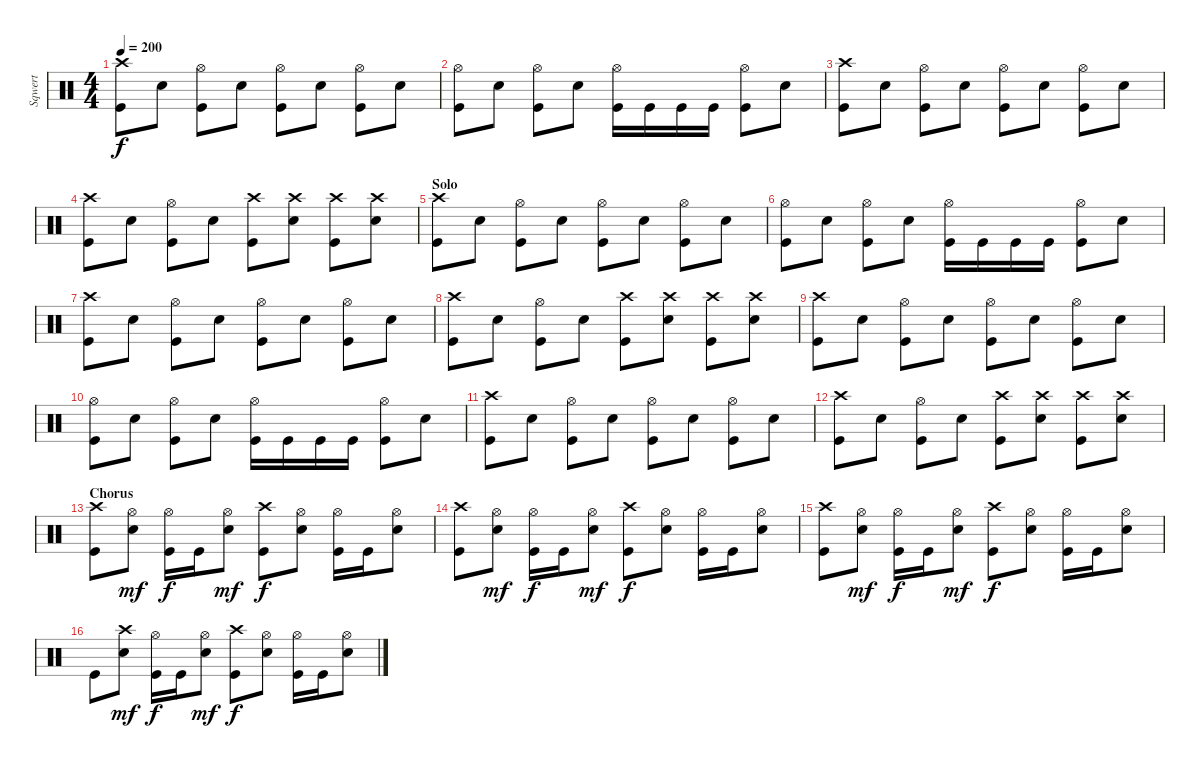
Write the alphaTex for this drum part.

\track ("Sqwert" "Sqwert") {instrument percussion}
\staff {score}
\articulation defaults
\ts (4 4)
\tempo 200
\clef neutral
\ks c
("Crash high (hit)" "Kick (hit)").8{dy f} "Snare (hit) 2".8 ("Hi-Hat (open)" "Kick (hit)").8 "Snare (hit) 2".8 ("Hi-Hat (open)" "Kick (hit)").8 "Snare (hit) 2".8 ("Hi-Hat (open)" "Kick (hit)").8 "Snare (hit) 2".8 |
("Hi-Hat (open)" "Kick (hit)").8 "Snare (hit) 2".8 ("Hi-Hat (open)" "Kick (hit)").8 "Snare (hit) 2".8 ("Hi-Hat (open)" "Kick (hit)").16 "Kick (hit)".16 "Kick (hit)".16 "Kick (hit)".16 ("Hi-Hat (open)" "Kick (hit)").8 "Snare (hit) 2".8 |
("Crash high (hit)" "Kick (hit)").8 "Snare (hit) 2".8 ("Hi-Hat (open)" "Kick (hit)").8 "Snare (hit) 2".8 ("Hi-Hat (open)" "Kick (hit)").8 "Snare (hit) 2".8 ("Hi-Hat (open)" "Kick (hit)").8 "Snare (hit) 2".8 |
("Crash high (hit)" "Kick (hit)").8 "Snare (hit) 2".8 ("Hi-Hat (open)" "Kick (hit)").8 "Snare (hit) 2".8 ("Crash high (hit)" "Kick (hit)").8 ("Crash high (hit)" "Snare (hit) 2").8 ("Crash high (hit)" "Kick (hit)").8 ("Crash high (hit)" "Snare (hit) 2").8 |
\section ("" "Solo")
("Crash high (hit)" "Kick (hit)").8 "Snare (hit) 2".8 ("Hi-Hat (open)" "Kick (hit)").8 "Snare (hit) 2".8 ("Hi-Hat (open)" "Kick (hit)").8 "Snare (hit) 2".8 ("Hi-Hat (open)" "Kick (hit)").8 "Snare (hit) 2".8 |
("Hi-Hat (open)" "Kick (hit)").8 "Snare (hit) 2".8 ("Hi-Hat (open)" "Kick (hit)").8 "Snare (hit) 2".8 ("Hi-Hat (open)" "Kick (hit)").16 "Kick (hit)".16 "Kick (hit)".16 "Kick (hit)".16 ("Hi-Hat (open)" "Kick (hit)").8 "Snare (hit) 2".8 |
("Crash high (hit)" "Kick (hit)").8 "Snare (hit) 2".8 ("Hi-Hat (open)" "Kick (hit)").8 "Snare (hit) 2".8 ("Hi-Hat (open)" "Kick (hit)").8 "Snare (hit) 2".8 ("Hi-Hat (open)" "Kick (hit)").8 "Snare (hit) 2".8 |
("Crash high (hit)" "Kick (hit)").8 "Snare (hit) 2".8 ("Hi-Hat (open)" "Kick (hit)").8 "Snare (hit) 2".8 ("Crash high (hit)" "Kick (hit)").8 ("Crash high (hit)" "Snare (hit) 2").8 ("Crash high (hit)" "Kick (hit)").8 ("Crash high (hit)" "Snare (hit) 2").8 |
("Crash high (hit)" "Kick (hit)").8 "Snare (hit) 2".8 ("Hi-Hat (open)" "Kick (hit)").8 "Snare (hit) 2".8 ("Hi-Hat (open)" "Kick (hit)").8 "Snare (hit) 2".8 ("Hi-Hat (open)" "Kick (hit)").8 "Snare (hit) 2".8 |
("Hi-Hat (open)" "Kick (hit)").8 "Snare (hit) 2".8 ("Hi-Hat (open)" "Kick (hit)").8 "Snare (hit) 2".8 ("Hi-Hat (open)" "Kick (hit)").16 "Kick (hit)".16 "Kick (hit)".16 "Kick (hit)".16 ("Hi-Hat (open)" "Kick (hit)").8 "Snare (hit) 2".8 |
("Crash high (hit)" "Kick (hit)").8 "Snare (hit) 2".8 ("Hi-Hat (open)" "Kick (hit)").8 "Snare (hit) 2".8 ("Hi-Hat (open)" "Kick (hit)").8 "Snare (hit) 2".8 ("Hi-Hat (open)" "Kick (hit)").8 "Snare (hit) 2".8 |
("Crash high (hit)" "Kick (hit)").8 "Snare (hit) 2".8 ("Hi-Hat (open)" "Kick (hit)").8 "Snare (hit) 2".8 ("Crash high (hit)" "Kick (hit)").8 ("Crash high (hit)" "Snare (hit) 2").8 ("Crash high (hit)" "Kick (hit)").8 ("Crash high (hit)" "Snare (hit) 2").8 |
\section ("" "Chorus")
("Crash high (hit)" "Kick (hit)").8 ("Hi-Hat (open)" "Snare (hit) 2").8{dy mf} ("Hi-Hat (open)" "Kick (hit)").16{dy f} "Kick (hit)".16 ("Hi-Hat (open)" "Snare (hit) 2").8{dy mf} ("Crash high (hit)" "Kick (hit)").8{dy f} ("Hi-Hat (open)" "Snare (hit) 2").8 ("Hi-Hat (open)" "Kick (hit)").16 "Kick (hit)".16 ("Hi-Hat (open)" "Snare (hit) 2").8 |
("Crash high (hit)" "Kick (hit)").8 ("Hi-Hat (open)" "Snare (hit) 2").8{dy mf} ("Hi-Hat (open)" "Kick (hit)").16{dy f} "Kick (hit)".16 ("Hi-Hat (open)" "Snare (hit) 2").8{dy mf} ("Crash high (hit)" "Kick (hit)").8{dy f} ("Hi-Hat (open)" "Snare (hit) 2").8 ("Hi-Hat (open)" "Kick (hit)").16 "Kick (hit)".16 ("Hi-Hat (open)" "Snare (hit) 2").8 |
("Crash high (hit)" "Kick (hit)").8 ("Hi-Hat (open)" "Snare (hit) 2").8{dy mf} ("Hi-Hat (open)" "Kick (hit)").16{dy f} "Kick (hit)".16 ("Hi-Hat (open)" "Snare (hit) 2").8{dy mf} ("Crash high (hit)" "Kick (hit)").8{dy f} ("Hi-Hat (open)" "Snare (hit) 2").8 ("Hi-Hat (open)" "Kick (hit)").16 "Kick (hit)".16 ("Hi-Hat (open)" "Snare (hit) 2").8 |
"Kick (hit)".8 ("Crash high (hit)" "Snare (hit) 2").8{dy mf} ("Hi-Hat (open)" "Kick (hit)").16{dy f} "Kick (hit)".16 ("Hi-Hat (open)" "Snare (hit) 2").8{dy mf} ("Crash high (hit)" "Kick (hit)").8{dy f} ("Hi-Hat (open)" "Snare (hit) 2").8 ("Hi-Hat (open)" "Kick (hit)").16 "Kick (hit)".16 ("Hi-Hat (open)" "Snare (hit) 2").8
